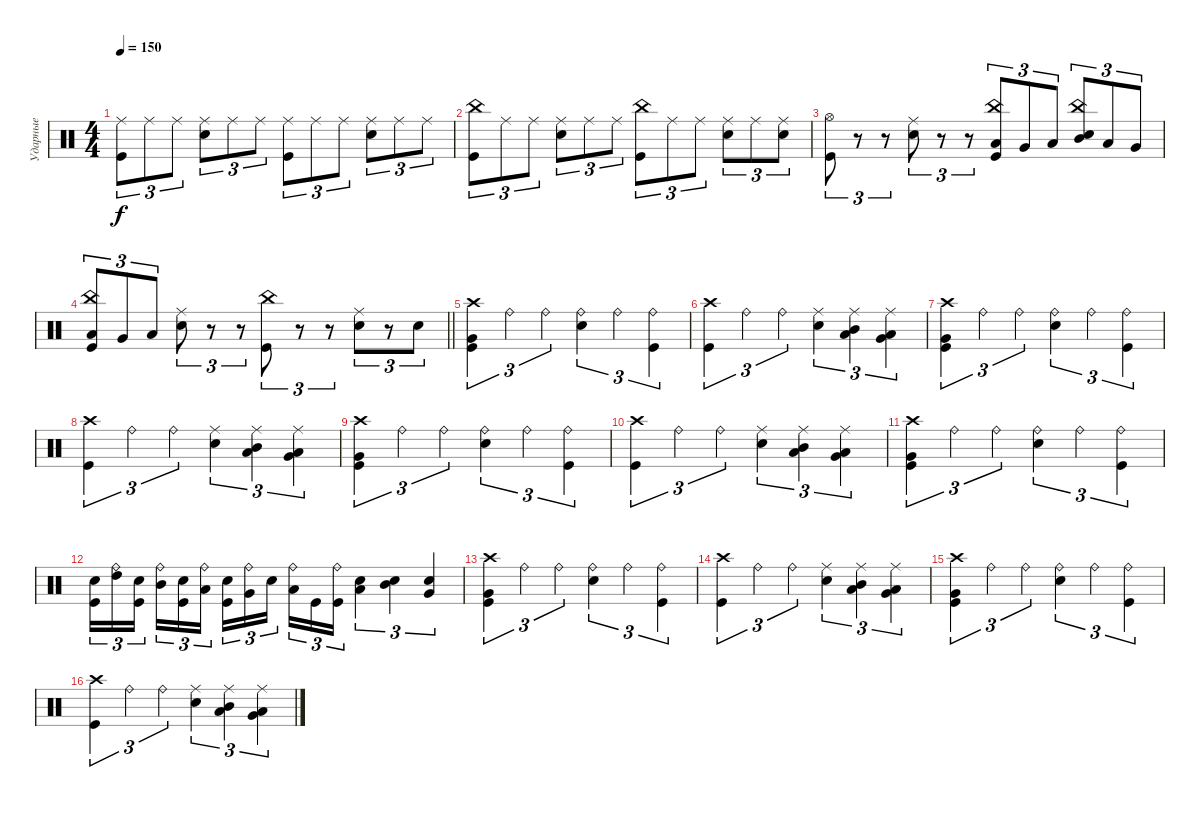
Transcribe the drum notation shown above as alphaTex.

\track ("Ударные" "Ударные") {instrument percussion}
\staff {score}
\articulation defaults
\ts (4 4)
\tempo 150
\clef neutral
\ks c
("Ride (middle)" "Kick (hit)").8{tu (3 2) dy f} "Ride (middle)".8{tu (3 2)} "Ride (middle)".8{tu (3 2)} ("Ride (middle)" "Electric Snare (hit)").8{tu (3 2)} "Ride (middle)".8{tu (3 2)} "Ride (middle)".8{tu (3 2)} ("Ride (middle)" "Kick (hit)").8{tu (3 2)} "Ride (middle)".8{tu (3 2)} "Ride (middle)".8{tu (3 2)} ("Ride (middle)" "Electric Snare (hit)").8{tu (3 2)} "Ride (middle)".8{tu (3 2)} "Ride (middle)".8{tu (3 2)} |
("China (hit)" "Kick (hit)").8{tu (3 2)} "Ride (middle)".8{tu (3 2)} "Ride (middle)".8{tu (3 2)} ("Ride (middle)" "Electric Snare (hit)").8{tu (3 2)} "Ride (middle)".8{tu (3 2)} "Ride (middle)".8{tu (3 2)} ("China (hit)" "Kick (hit)").8{tu (3 2)} "Ride (middle)".8{tu (3 2)} "Ride (middle)".8{tu (3 2)} ("Ride (middle)" "Electric Snare (hit)").8{tu (3 2)} "Ride (middle)".8{tu (3 2)} ("Ride (middle)" "Electric Snare (hit)").8{tu (3 2)} |
("Hi-Hat (open)" "Kick (hit)").8{tu (3 2)} r.8{tu (3 2)} r.8{tu (3 2)} ("Ride (middle)" "Electric Snare (hit)").8{tu (3 2)} r.8{tu (3 2)} r.8{tu (3 2)} ("China (hit)" "Low Floor Tom (hit)" "Kick (hit)").8{tu (3 2)} "Very Low Tom (hit)".8{tu (3 2)} "Low Tom (hit)".8{tu (3 2)} ("China (hit)" "Mid Tom (hit)" "Electric Snare (hit)").8{tu (3 2)} "Low Tom (hit)".8{tu (3 2)} "Very Low Tom (hit)".8{tu (3 2)} |
\barLineRight lightlight
("China (hit)" "Low Floor Tom (hit)" "Kick (hit)").8{tu (3 2)} "Very Low Tom (hit)".8{tu (3 2)} "Low Floor Tom (hit)".8{tu (3 2)} ("Ride (middle)" "Electric Snare (hit)").8{tu (3 2)} r.8{tu (3 2)} r.8{tu (3 2)} ("China (hit)" "Kick (hit)").8{tu (3 2)} r.8{tu (3 2)} r.8{tu (3 2)} ("Ride (middle)" "Electric Snare (hit)").8{tu (3 2)} r.8{tu (3 2)} "Electric Snare (hit)".8{tu (3 2)} |
("Crash high (hit)" "Very Low Tom (hit)" "Kick (hit)").4{tu (3 2)} "Ride (bell)".4{tu (3 2)} "Ride (bell)".4{tu (3 2)} ("Ride (bell)" "Electric Snare (hit)").4{tu (3 2)} "Ride (bell)".4{tu (3 2)} ("Ride (bell)" "Kick (hit)").4{tu (3 2)} |
("Crash high (hit)" "Kick (hit)").4{tu (3 2)} "Ride (bell)".4{tu (3 2)} "Ride (bell)".4{tu (3 2)} ("Ride (middle)" "Electric Snare (hit)").4{tu (3 2)} ("Ride (middle)" "Mid Tom (hit)" "Low Tom (hit)").4{tu (3 2)} ("Ride (middle)" "Very Low Tom (hit)" "Low Floor Tom (hit)").4{tu (3 2)} |
("Crash high (hit)" "Very Low Tom (hit)" "Kick (hit)").4{tu (3 2)} "Ride (bell)".4{tu (3 2)} "Ride (bell)".4{tu (3 2)} ("Ride (bell)" "Electric Snare (hit)").4{tu (3 2)} "Ride (bell)".4{tu (3 2)} ("Ride (bell)" "Kick (hit)").4{tu (3 2)} |
("Crash high (hit)" "Kick (hit)").4{tu (3 2)} "Ride (bell)".4{tu (3 2)} "Ride (bell)".4{tu (3 2)} ("Ride (middle)" "Electric Snare (hit)").4{tu (3 2)} ("Ride (middle)" "Mid Tom (hit)" "Low Tom (hit)").4{tu (3 2)} ("Ride (middle)" "Very Low Tom (hit)" "Low Floor Tom (hit)").4{tu (3 2)} |
("Crash high (hit)" "Very Low Tom (hit)" "Kick (hit)").4{tu (3 2)} "Ride (bell)".4{tu (3 2)} "Ride (bell)".4{tu (3 2)} ("Ride (bell)" "Electric Snare (hit)").4{tu (3 2)} "Ride (bell)".4{tu (3 2)} ("Ride (bell)" "Kick (hit)").4{tu (3 2)} |
("Crash high (hit)" "Kick (hit)").4{tu (3 2)} "Ride (bell)".4{tu (3 2)} "Ride (bell)".4{tu (3 2)} ("Ride (middle)" "Electric Snare (hit)").4{tu (3 2)} ("Ride (middle)" "Mid Tom (hit)" "Low Tom (hit)").4{tu (3 2)} ("Ride (middle)" "Very Low Tom (hit)" "Low Floor Tom (hit)").4{tu (3 2)} |
("Crash high (hit)" "Very Low Tom (hit)" "Kick (hit)").4{tu (3 2)} "Ride (bell)".4{tu (3 2)} "Ride (bell)".4{tu (3 2)} ("Ride (bell)" "Electric Snare (hit)").4{tu (3 2)} "Ride (bell)".4{tu (3 2)} ("Ride (bell)" "Kick (hit)").4{tu (3 2)} |
("Kick (hit)" "Electric Snare (hit)").16{tu (3 2)} ("Ride (bell)" "High Tom (hit)").16{tu (3 2)} ("Kick (hit)" "Electric Snare (hit)").16{tu (3 2) beam splitsecondary} ("Ride (bell)" "Mid Tom (hit)").16{tu (3 2)} ("Kick (hit)" "Electric Snare (hit)").16{tu (3 2)} ("Ride (bell)" "Low Tom (hit)").16{tu (3 2)} ("Kick (hit)" "Electric Snare (hit)").16{tu (3 2)} ("Ride (bell)" "Very Low Tom (hit)").16{tu (3 2)} "Electric Snare (hit)".16{tu (3 2) beam splitsecondary} ("Ride (bell)" "Low Floor Tom (hit)").16{tu (3 2)} "Kick (hit)".16{tu (3 2)} ("Ride (bell)" "Kick (hit)").16{tu (3 2)} ("Low Tom (hit)" "Electric Snare (hit)").4{tu (3 2)} ("Mid Tom (hit)" "Electric Snare (hit)").4{tu (3 2)} ("Very Low Tom (hit)" "Electric Snare (hit)").4{tu (3 2)} |
("Crash high (hit)" "Very Low Tom (hit)" "Kick (hit)").4{tu (3 2)} "Ride (bell)".4{tu (3 2)} "Ride (bell)".4{tu (3 2)} ("Ride (bell)" "Electric Snare (hit)").4{tu (3 2)} "Ride (bell)".4{tu (3 2)} ("Ride (bell)" "Kick (hit)").4{tu (3 2)} |
("Crash high (hit)" "Kick (hit)").4{tu (3 2)} "Ride (bell)".4{tu (3 2)} "Ride (bell)".4{tu (3 2)} ("Ride (middle)" "Electric Snare (hit)").4{tu (3 2)} ("Ride (middle)" "Mid Tom (hit)" "Low Tom (hit)").4{tu (3 2)} ("Ride (middle)" "Very Low Tom (hit)" "Low Floor Tom (hit)").4{tu (3 2)} |
("Crash high (hit)" "Very Low Tom (hit)" "Kick (hit)").4{tu (3 2)} "Ride (bell)".4{tu (3 2)} "Ride (bell)".4{tu (3 2)} ("Ride (bell)" "Electric Snare (hit)").4{tu (3 2)} "Ride (bell)".4{tu (3 2)} ("Ride (bell)" "Kick (hit)").4{tu (3 2)} |
("Crash high (hit)" "Kick (hit)").4{tu (3 2)} "Ride (bell)".4{tu (3 2)} "Ride (bell)".4{tu (3 2)} ("Ride (middle)" "Electric Snare (hit)").4{tu (3 2)} ("Ride (middle)" "Mid Tom (hit)" "Low Tom (hit)").4{tu (3 2)} ("Ride (middle)" "Very Low Tom (hit)" "Low Floor Tom (hit)").4{tu (3 2)}
